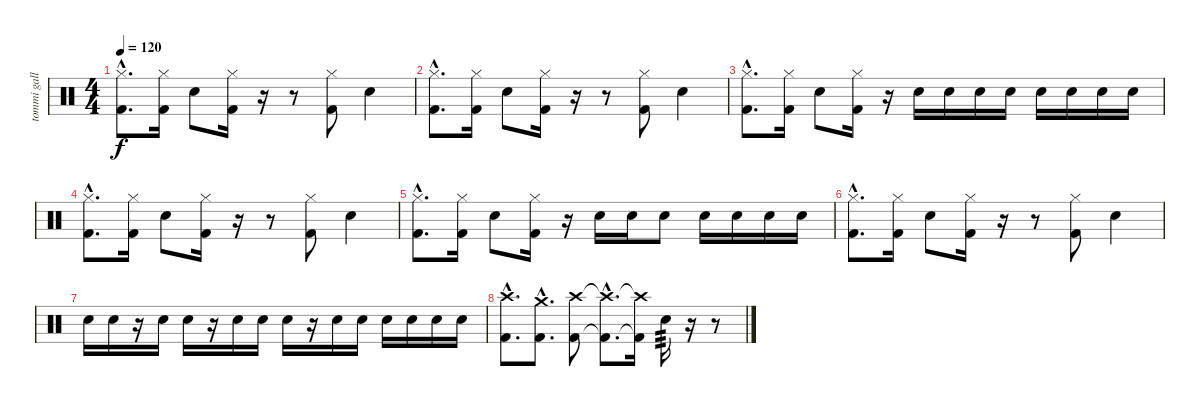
\track ("tommi gallo" "tommi gall") {instrument percussion}
\staff {score}
\articulation defaults
\ts (4 4)
\tempo 120
\clef neutral
\ks c
("Hi-Hat (closed)"{hac} "Kick (hit) 2"{hac}).8{d dy f} ("Hi-Hat (closed)" "Kick (hit) 2").16 "Snare (hit) 2".8 ("Hi-Hat (closed)" "Kick (hit) 2").16 r.16 r.8 ("Hi-Hat (closed)" "Kick (hit) 2").8 "Snare (hit) 2".4 |
("Hi-Hat (closed)"{hac} "Kick (hit) 2"{hac}).8{d} ("Hi-Hat (closed)" "Kick (hit) 2").16 "Snare (hit) 2".8 ("Hi-Hat (closed)" "Kick (hit) 2").16 r.16 r.8 ("Hi-Hat (closed)" "Kick (hit) 2").8 "Snare (hit) 2".4 |
("Hi-Hat (closed)"{hac} "Kick (hit) 2"{hac}).8{d} ("Hi-Hat (closed)" "Kick (hit) 2").16 "Snare (hit) 2".8 ("Hi-Hat (closed)" "Kick (hit) 2").16 r.16 "Snare (hit) 2".16 "Snare (hit) 2".16 "Snare (hit) 2".16 "Snare (hit) 2".16 "Snare (hit) 2".16 "Snare (hit) 2".16 "Snare (hit) 2".16 "Snare (hit) 2".16 |
("Hi-Hat (closed)"{hac} "Kick (hit) 2"{hac}).8{d} ("Hi-Hat (closed)" "Kick (hit) 2").16 "Snare (hit) 2".8 ("Hi-Hat (closed)" "Kick (hit) 2").16 r.16 r.8 ("Hi-Hat (closed)" "Kick (hit) 2").8 "Snare (hit) 2".4 |
("Hi-Hat (closed)"{hac} "Kick (hit) 2"{hac}).8{d} ("Hi-Hat (closed)" "Kick (hit) 2").16 "Snare (hit) 2".8 ("Hi-Hat (closed)" "Kick (hit) 2").16 r.16 "Snare (hit) 2".16 "Snare (hit) 2".16 "Snare (hit) 2".8 "Snare (hit) 2".16 "Snare (hit) 2".16 "Snare (hit) 2".16 "Snare (hit) 2".16 |
("Hi-Hat (closed)"{hac} "Kick (hit) 2"{hac}).8{d} ("Hi-Hat (closed)" "Kick (hit) 2").16 "Snare (hit) 2".8 ("Hi-Hat (closed)" "Kick (hit) 2").16 r.16 r.8 ("Hi-Hat (closed)" "Kick (hit) 2").8 "Snare (hit) 2".4 |
"Snare (hit) 2".16 "Snare (hit) 2".16 r.16 "Snare (hit) 2".16 "Snare (hit) 2".16 r.16 "Snare (hit) 2".16 "Snare (hit) 2".16 "Snare (hit) 2".16 r.16 "Snare (hit) 2".16 "Snare (hit) 2".16 "Snare (hit) 2".16 "Snare (hit) 2".16 "Snare (hit) 2".16 "Snare (hit) 2".16 |
("Crash high (hit)"{hac} "Kick (hit) 2"{hac}).8{d} ("Crash medium (hit)"{hac} "Kick (hit) 2"{hac}).8{d} ("Crash high (hit)" "Kick (hit) 2").8 ("Crash high (hit)"{hac t} "Kick (hit) 2"{hac t}).8{d} ("Crash high (hit)"{t} "Kick (hit) 2"{t}).16 "Snare (hit) 2".16{tp 3} r.16 r.8
